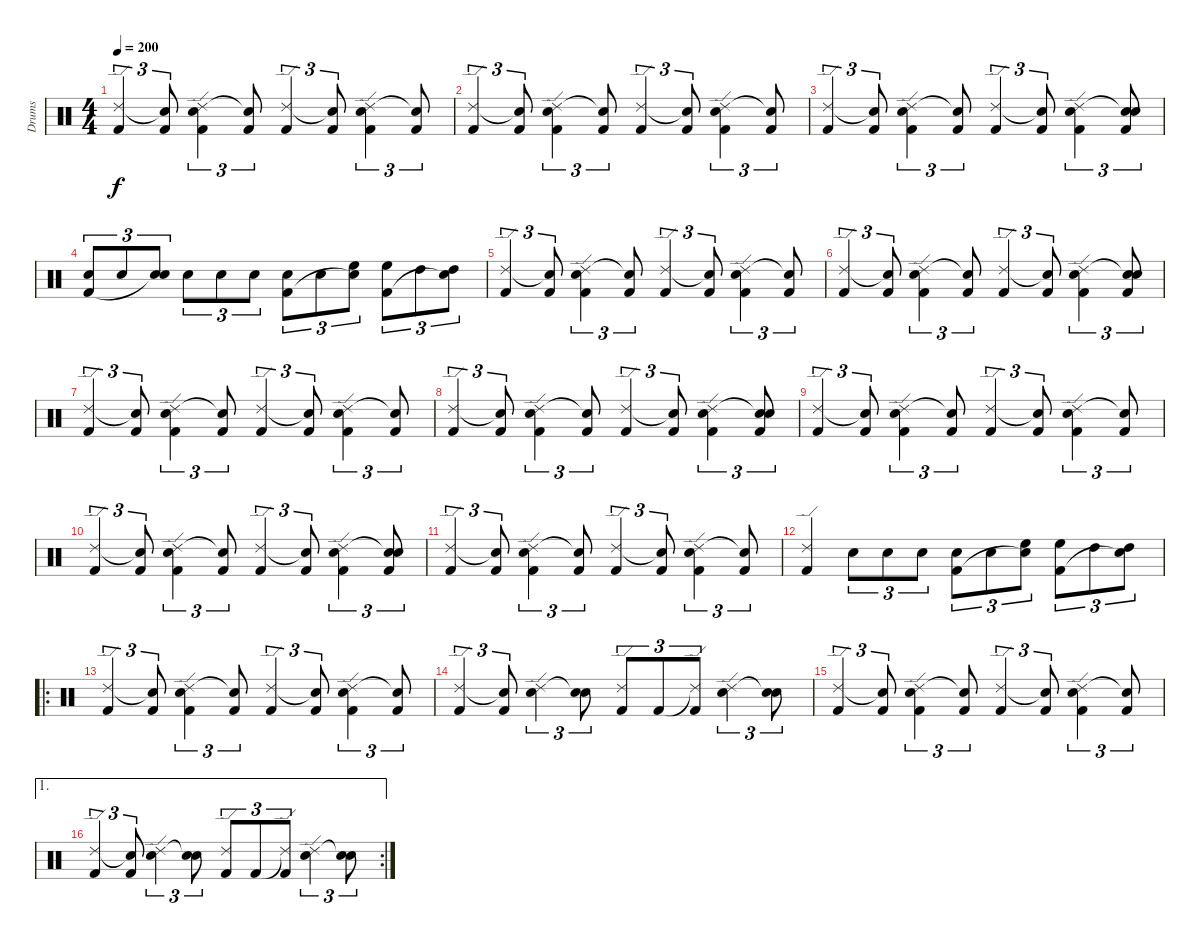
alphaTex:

\track ("Drums" "Drums") {instrument percussion}
\staff {score}
\articulation defaults
\ts (4 4)
\tempo 200
\clef neutral
\ks c
("Ride (edge) 2" "Kick (hit) 2").4{tu (3 2) dy f} ("Snare (hit)"{t} "Kick (hit) 2").8{tu (3 2)} ("Ride (edge) 2" "Snare (hit) 2" "Kick (hit) 2").4{tu (3 2)} ("Snare (hit)"{t} "Kick (hit) 2").8{tu (3 2)} ("Ride (edge) 2" "Kick (hit) 2").4{tu (3 2)} ("Snare (hit)"{t} "Kick (hit) 2").8{tu (3 2)} ("Ride (edge) 2" "Snare (hit) 2" "Kick (hit) 2").4{tu (3 2)} ("Snare (hit)"{t} "Kick (hit) 2").8{tu (3 2)} |
("Ride (edge) 2" "Kick (hit) 2").4{tu (3 2)} ("Snare (hit)"{t} "Kick (hit) 2").8{tu (3 2)} ("Ride (edge) 2" "Snare (hit) 2" "Kick (hit) 2").4{tu (3 2)} ("Snare (hit)"{t} "Kick (hit) 2").8{tu (3 2)} ("Ride (edge) 2" "Kick (hit) 2").4{tu (3 2)} ("Snare (hit)"{t} "Kick (hit) 2").8{tu (3 2)} ("Ride (edge) 2" "Snare (hit) 2" "Kick (hit) 2").4{tu (3 2)} ("Snare (hit)"{t} "Kick (hit) 2").8{tu (3 2)} |
("Ride (edge) 2" "Kick (hit) 2").4{tu (3 2)} ("Snare (hit)"{t} "Kick (hit) 2").8{tu (3 2)} ("Ride (edge) 2" "Snare (hit) 2" "Kick (hit) 2").4{tu (3 2)} ("Snare (hit)"{t} "Kick (hit) 2").8{tu (3 2)} ("Ride (edge) 2" "Kick (hit) 2").4{tu (3 2)} ("Snare (hit)"{t} "Kick (hit) 2").8{tu (3 2)} ("Ride (edge) 2" "Snare (hit) 2" "Kick (hit) 2").4{tu (3 2)} ("Snare (hit)"{t} "Snare (hit) 2" "Kick (hit) 2").8{tu (3 2)} |
("Snare (hit) 2" "Kick (hit) 2").8{tu (3 2)} "Snare (hit) 2".8{tu (3 2)} ("Snare (hit) 2" "Snare (hit)"{t}).8{tu (3 2)} "Snare (hit) 2".8{tu (3 2)} "Snare (hit) 2".8{tu (3 2)} "Snare (hit) 2".8{tu (3 2)} ("Snare (hit) 2" "Kick (hit) 2").8{tu (3 2)} "Snare (hit) 2".8{tu (3 2)} ("High Floor Tom (hit)" "Snare (hit)"{t}).8{tu (3 2)} ("High Floor Tom (hit)" "Kick (hit) 2").8{tu (3 2)} "High Tom (hit)".8{tu (3 2)} ("High Tom (hit)" "Snare (hit)"{t}).8{tu (3 2)} |
("Ride (edge) 2" "Kick (hit) 2").4{tu (3 2)} ("Snare (hit)"{t} "Kick (hit) 2").8{tu (3 2)} ("Ride (edge) 2" "Snare (hit) 2" "Kick (hit) 2").4{tu (3 2)} ("Snare (hit)"{t} "Kick (hit) 2").8{tu (3 2)} ("Ride (edge) 2" "Kick (hit) 2").4{tu (3 2)} ("Snare (hit)"{t} "Kick (hit) 2").8{tu (3 2)} ("Ride (edge) 2" "Snare (hit) 2" "Kick (hit) 2").4{tu (3 2)} ("Snare (hit)"{t} "Kick (hit) 2").8{tu (3 2)} |
("Ride (edge) 2" "Kick (hit) 2").4{tu (3 2)} ("Snare (hit)"{t} "Kick (hit) 2").8{tu (3 2)} ("Ride (edge) 2" "Snare (hit) 2" "Kick (hit) 2").4{tu (3 2)} ("Snare (hit)"{t} "Kick (hit) 2").8{tu (3 2)} ("Ride (edge) 2" "Kick (hit) 2").4{tu (3 2)} ("Snare (hit)"{t} "Kick (hit) 2").8{tu (3 2)} ("Ride (edge) 2" "Snare (hit) 2" "Kick (hit) 2").4{tu (3 2)} ("Snare (hit)"{t} "Snare (hit) 2" "Kick (hit) 2").8{tu (3 2)} |
("Ride (edge) 2" "Kick (hit) 2").4{tu (3 2)} ("Snare (hit)"{t} "Kick (hit) 2").8{tu (3 2)} ("Ride (edge) 2" "Snare (hit) 2" "Kick (hit) 2").4{tu (3 2)} ("Snare (hit)"{t} "Kick (hit) 2").8{tu (3 2)} ("Ride (edge) 2" "Kick (hit) 2").4{tu (3 2)} ("Snare (hit)"{t} "Kick (hit) 2").8{tu (3 2)} ("Ride (edge) 2" "Snare (hit) 2" "Kick (hit) 2").4{tu (3 2)} ("Snare (hit)"{t} "Kick (hit) 2").8{tu (3 2)} |
("Ride (edge) 2" "Kick (hit) 2").4{tu (3 2)} ("Snare (hit)"{t} "Kick (hit) 2").8{tu (3 2)} ("Ride (edge) 2" "Snare (hit) 2" "Kick (hit) 2").4{tu (3 2)} ("Snare (hit)"{t} "Kick (hit) 2").8{tu (3 2)} ("Ride (edge) 2" "Kick (hit) 2").4{tu (3 2)} ("Snare (hit)"{t} "Kick (hit) 2").8{tu (3 2)} ("Ride (edge) 2" "Snare (hit) 2" "Kick (hit) 2").4{tu (3 2)} ("Snare (hit)"{t} "Snare (hit) 2" "Kick (hit) 2").8{tu (3 2)} |
("Ride (edge) 2" "Kick (hit) 2").4{tu (3 2)} ("Snare (hit)"{t} "Kick (hit) 2").8{tu (3 2)} ("Ride (edge) 2" "Snare (hit) 2" "Kick (hit) 2").4{tu (3 2)} ("Snare (hit)"{t} "Kick (hit) 2").8{tu (3 2)} ("Ride (edge) 2" "Kick (hit) 2").4{tu (3 2)} ("Snare (hit)"{t} "Kick (hit) 2").8{tu (3 2)} ("Ride (edge) 2" "Snare (hit) 2" "Kick (hit) 2").4{tu (3 2)} ("Snare (hit)"{t} "Kick (hit) 2").8{tu (3 2)} |
("Ride (edge) 2" "Kick (hit) 2").4{tu (3 2)} ("Snare (hit)"{t} "Kick (hit) 2").8{tu (3 2)} ("Ride (edge) 2" "Snare (hit) 2" "Kick (hit) 2").4{tu (3 2)} ("Snare (hit)"{t} "Kick (hit) 2").8{tu (3 2)} ("Ride (edge) 2" "Kick (hit) 2").4{tu (3 2)} ("Snare (hit)"{t} "Kick (hit) 2").8{tu (3 2)} ("Ride (edge) 2" "Snare (hit) 2" "Kick (hit) 2").4{tu (3 2)} ("Snare (hit)"{t} "Snare (hit) 2" "Kick (hit) 2").8{tu (3 2)} |
("Ride (edge) 2" "Kick (hit) 2").4{tu (3 2)} ("Snare (hit)"{t} "Kick (hit) 2").8{tu (3 2)} ("Ride (edge) 2" "Snare (hit) 2" "Kick (hit) 2").4{tu (3 2)} ("Snare (hit)"{t} "Kick (hit) 2").8{tu (3 2)} ("Ride (edge) 2" "Kick (hit) 2").4{tu (3 2)} ("Snare (hit)"{t} "Kick (hit) 2").8{tu (3 2)} ("Ride (edge) 2" "Snare (hit) 2" "Kick (hit) 2").4{tu (3 2)} ("Snare (hit)"{t} "Kick (hit) 2").8{tu (3 2)} |
("Ride (edge) 2" "Kick (hit) 2").4 "Snare (hit) 2".8{tu (3 2)} "Snare (hit) 2".8{tu (3 2)} "Snare (hit) 2".8{tu (3 2)} ("Snare (hit) 2" "Kick (hit) 2").8{tu (3 2)} "Snare (hit) 2".8{tu (3 2)} ("High Floor Tom (hit)" "Snare (hit)"{t}).8{tu (3 2)} ("High Floor Tom (hit)" "Kick (hit) 2").8{tu (3 2)} "High Tom (hit)".8{tu (3 2)} ("High Tom (hit)" "Snare (hit)"{t}).8{tu (3 2)} |
\ro
("Ride (edge) 2" "Kick (hit) 2").4{tu (3 2)} ("Snare (hit)"{t} "Kick (hit) 2").8{tu (3 2)} ("Ride (edge) 2" "Snare (hit) 2" "Kick (hit) 2").4{tu (3 2)} ("Snare (hit)"{t} "Kick (hit) 2").8{tu (3 2)} ("Ride (edge) 2" "Kick (hit) 2").4{tu (3 2)} ("Snare (hit)"{t} "Kick (hit) 2").8{tu (3 2)} ("Ride (edge) 2" "Snare (hit) 2" "Kick (hit) 2").4{tu (3 2)} ("Snare (hit)"{t} "Kick (hit) 2").8{tu (3 2)} |
("Ride (edge) 2" "Kick (hit) 2").4{tu (3 2)} ("Snare (hit)"{t} "Kick (hit) 2").8{tu (3 2)} ("Ride (edge) 2" "Snare (hit) 2").4{tu (3 2)} ("Snare (hit)"{t} "Snare (hit) 2").8{tu (3 2)} ("Ride (edge) 2" "Kick (hit) 2").8{tu (3 2)} "Kick (hit) 2".8{tu (3 2)} ("Ride (edge) 2"{t} "Kick (hit) 2").8{tu (3 2)} ("Ride (edge) 2" "Snare (hit) 2").4{tu (3 2)} ("Snare (hit)"{t} "Snare (hit) 2").8{tu (3 2)} |
("Ride (edge) 2" "Kick (hit) 2").4{tu (3 2)} ("Snare (hit)"{t} "Kick (hit) 2").8{tu (3 2)} ("Ride (edge) 2" "Snare (hit) 2" "Kick (hit) 2").4{tu (3 2)} ("Snare (hit)"{t} "Kick (hit) 2").8{tu (3 2)} ("Ride (edge) 2" "Kick (hit) 2").4{tu (3 2)} ("Snare (hit)"{t} "Kick (hit) 2").8{tu (3 2)} ("Ride (edge) 2" "Snare (hit) 2" "Kick (hit) 2").4{tu (3 2)} ("Snare (hit)"{t} "Kick (hit) 2").8{tu (3 2)} |
\ae 1
\rc 2
("Ride (edge) 2" "Kick (hit) 2").4{tu (3 2)} ("Snare (hit)"{t} "Kick (hit) 2").8{tu (3 2)} ("Ride (edge) 2" "Snare (hit) 2").4{tu (3 2)} ("Snare (hit)"{t} "Snare (hit) 2").8{tu (3 2)} ("Ride (edge) 2" "Kick (hit) 2").8{tu (3 2)} "Kick (hit) 2".8{tu (3 2)} ("Ride (edge) 2"{t} "Kick (hit) 2").8{tu (3 2)} ("Ride (edge) 2" "Snare (hit) 2").4{tu (3 2)} ("Snare (hit)"{t} "Snare (hit) 2").8{tu (3 2)}
